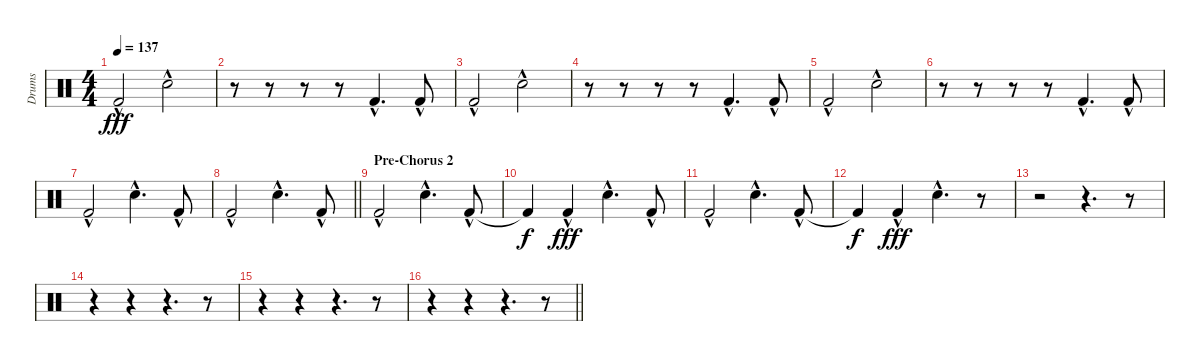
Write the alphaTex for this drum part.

\track ("Drums" "Drums") {instrument percussion}
\staff {score}
\articulation defaults
\ts (4 4)
\tempo 137
\clef neutral
\ks c "Kick (hit) 2"{hac}.2{dy fff} "Snare (hit) 2"{hac}.2
|
r.8 r.8 r.8 r.8 "Kick (hit) 2"{hac}.4{d} "Kick (hit) 2"{hac}.8 |
"Kick (hit) 2"{hac}.2 "Snare (hit) 2"{hac}.2 |
r.8 r.8 r.8 r.8 "Kick (hit) 2"{hac}.4{d} "Kick (hit) 2"{hac}.8 |
"Kick (hit) 2"{hac}.2 "Snare (hit) 2"{hac}.2 |
r.8 r.8 r.8 r.8 "Kick (hit) 2"{hac}.4{d} "Kick (hit) 2"{hac}.8 |
"Kick (hit) 2"{hac}.2 "Snare (hit) 2"{hac}.4{d} "Kick (hit) 2"{hac}.8 |
\barLineRight lightlight "Kick (hit) 2"{hac}.2 "Snare (hit) 2"{hac}.4{d} "Kick (hit) 2"{hac}.8
|
\section ("" "Pre-Chorus 2")
"Kick (hit) 2"{hac}.2 "Snare (hit) 2"{hac}.4{d} "Kick (hit) 2"{hac}.8 |
"Kick (hit) 2"{t}.4{dy f} "Kick (hit) 2"{hac}.4{dy fff} "Snare (hit) 2"{hac}.4{d} "Kick (hit) 2"{hac}.8 |
"Kick (hit) 2"{hac}.2 "Snare (hit) 2"{hac}.4{d} "Kick (hit) 2"{hac}.8 |
"Kick (hit) 2"{t}.4{dy f} "Kick (hit) 2"{hac}.4{dy fff} "Snare (hit) 2"{hac}.4{d} r.8 |
r.2 r.4{d} r.8 |
r.4 r.4 r.4{d} r.8 |
r.4 r.4 r.4{d} r.8 |
\barLineRight lightlight
r.4 r.4 r.4{d} r.8
